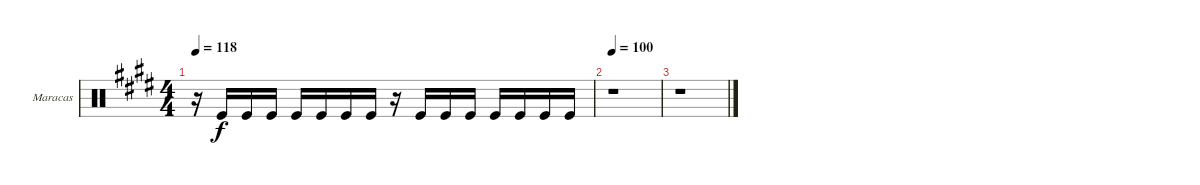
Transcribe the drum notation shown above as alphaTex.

\bracketExtendMode groupsimilarinstruments
\firstSystemTrackNameOrientation horizontal
\otherSystemsTrackNameOrientation horizontal
\track ("Maracas" "Maracas") {instrument percussion}
\staff {score}
\articulation defaults
\ts (4 4)
\tempo 118
\clef neutral
\ks e
r.16{dy f} "Kick (hit)".16 "Kick (hit)".16 "Kick (hit)".16 "Kick (hit)".16 "Kick (hit)".16 "Kick (hit)".16 "Kick (hit)".16 r.16 "Kick (hit)".16 "Kick (hit)".16 "Kick (hit)".16 "Kick (hit)".16 "Kick (hit)".16 "Kick (hit)".16 "Kick (hit)".16 |
\tempo 100
r.1 |
r.1
